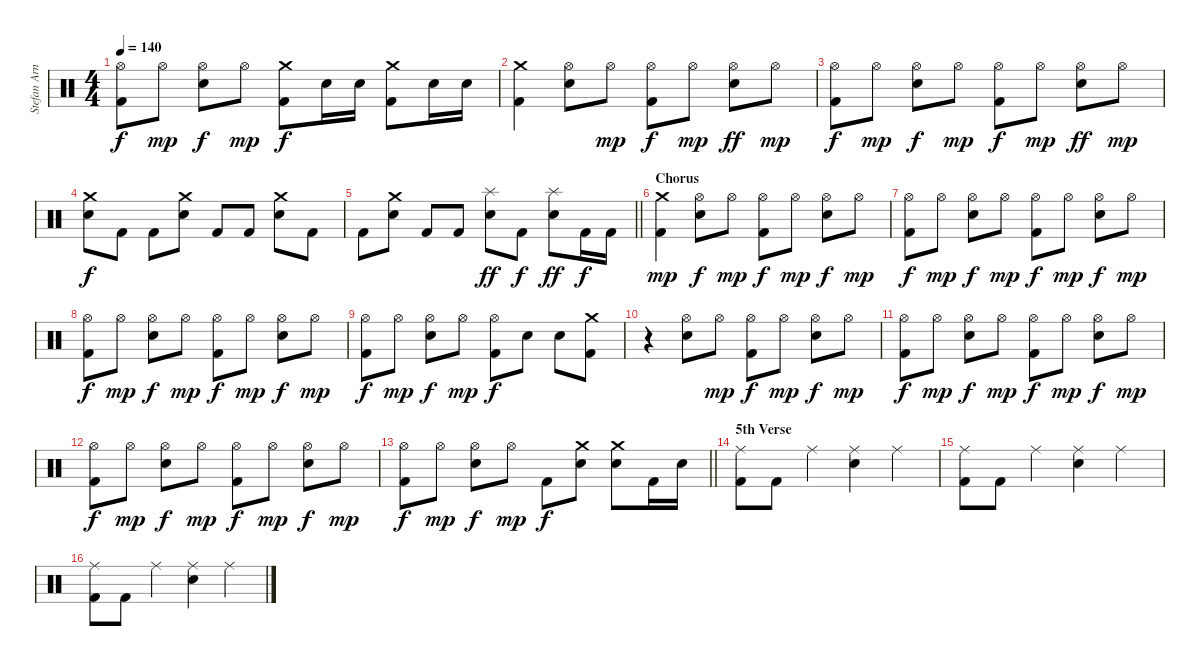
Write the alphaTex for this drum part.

\track ("Stefan Arnold" "Stefan Arn") {instrument percussion}
\staff {score}
\articulation defaults
\ts (4 4)
\tempo 140
\clef neutral
\ks c
("Hi-Hat (open)" "Kick (hit) 2").8{dy f} "Hi-Hat (open)".8{dy mp} ("Hi-Hat (open)" "Electric Snare (hit)").8{dy f} "Hi-Hat (open)".8{dy mp} ("Crash medium (hit)" "Kick (hit) 2").8{dy f} "Electric Snare (hit)".16 "Electric Snare (hit)".16 ("Crash medium (hit)" "Kick (hit) 2").8 "Electric Snare (hit)".16 "Electric Snare (hit)".16 |
("Crash medium (hit)" "Kick (hit) 2").4 ("Hi-Hat (open)" "Electric Snare (hit)").8 "Hi-Hat (open)".8{dy mp} ("Hi-Hat (open)" "Kick (hit) 2").8{dy f} "Hi-Hat (open)".8{dy mp} ("Hi-Hat (open)" "Electric Snare (hit)").8{dy ff} "Hi-Hat (open)".8{dy mp} |
("Hi-Hat (open)" "Kick (hit) 2").8{dy f} "Hi-Hat (open)".8{dy mp} ("Hi-Hat (open)" "Electric Snare (hit)").8{dy f} "Hi-Hat (open)".8{dy mp} ("Hi-Hat (open)" "Kick (hit) 2").8{dy f} "Hi-Hat (open)".8{dy mp} ("Hi-Hat (open)" "Electric Snare (hit)").8{dy ff} "Hi-Hat (open)".8{dy mp} |
("Crash medium (hit)" "Electric Snare (hit)").8{dy f} "Kick (hit) 2".8 "Kick (hit) 2".8 ("Crash medium (hit)" "Electric Snare (hit)").8 "Kick (hit) 2".8 "Kick (hit) 2".8 ("Crash medium (hit)" "Electric Snare (hit)").8 "Kick (hit) 2".8 |
\barLineRight lightlight "Kick (hit) 2".8
("Crash medium (hit)" "Electric Snare (hit)").8 "Kick (hit) 2".8 "Kick (hit) 2".8 ("Splash (hit)" "Electric Snare (hit)").8{dy ff} "Kick (hit) 2".8{dy f} ("Splash (hit)" "Electric Snare (hit)").8{dy ff} "Kick (hit) 2".16{dy f} "Kick (hit) 2".16 |
\section ("" "Chorus")
("Crash medium (hit)" "Kick (hit) 2").4{dy mp} ("Hi-Hat (open)" "Electric Snare (hit)").8{dy f} "Hi-Hat (open)".8{dy mp} ("Hi-Hat (open)" "Kick (hit) 2").8{dy f} "Hi-Hat (open)".8{dy mp} ("Hi-Hat (open)" "Electric Snare (hit)").8{dy f} "Hi-Hat (open)".8{dy mp} |
("Hi-Hat (open)" "Kick (hit) 2").8{dy f} "Hi-Hat (open)".8{dy mp} ("Hi-Hat (open)" "Electric Snare (hit)").8{dy f} "Hi-Hat (open)".8{dy mp} ("Hi-Hat (open)" "Kick (hit) 2").8{dy f} "Hi-Hat (open)".8{dy mp} ("Hi-Hat (open)" "Electric Snare (hit)").8{dy f} "Hi-Hat (open)".8{dy mp} |
("Hi-Hat (open)" "Kick (hit) 2").8{dy f} "Hi-Hat (open)".8{dy mp} ("Hi-Hat (open)" "Electric Snare (hit)").8{dy f} "Hi-Hat (open)".8{dy mp} ("Hi-Hat (open)" "Kick (hit) 2").8{dy f} "Hi-Hat (open)".8{dy mp} ("Hi-Hat (open)" "Electric Snare (hit)").8{dy f} "Hi-Hat (open)".8{dy mp} |
("Hi-Hat (open)" "Kick (hit) 2").8{dy f} "Hi-Hat (open)".8{dy mp} ("Hi-Hat (open)" "Electric Snare (hit)").8{dy f} "Hi-Hat (open)".8{dy mp} ("Hi-Hat (open)" "Kick (hit) 2").8{dy f} "Electric Snare (hit)".8 "Electric Snare (hit)".8 ("Crash medium (hit)" "Kick (hit) 2").8 |
r.4 ("Hi-Hat (open)" "Electric Snare (hit)").8 "Hi-Hat (open)".8{dy mp} ("Hi-Hat (open)" "Kick (hit) 2").8{dy f} "Hi-Hat (open)".8{dy mp} ("Hi-Hat (open)" "Electric Snare (hit)").8{dy f} "Hi-Hat (open)".8{dy mp} |
("Hi-Hat (open)" "Kick (hit) 2").8{dy f} "Hi-Hat (open)".8{dy mp} ("Hi-Hat (open)" "Electric Snare (hit)").8{dy f} "Hi-Hat (open)".8{dy mp} ("Hi-Hat (open)" "Kick (hit) 2").8{dy f} "Hi-Hat (open)".8{dy mp} ("Hi-Hat (open)" "Electric Snare (hit)").8{dy f} "Hi-Hat (open)".8{dy mp} |
("Hi-Hat (open)" "Kick (hit) 2").8{dy f} "Hi-Hat (open)".8{dy mp} ("Hi-Hat (open)" "Electric Snare (hit)").8{dy f} "Hi-Hat (open)".8{dy mp} ("Hi-Hat (open)" "Kick (hit) 2").8{dy f} "Hi-Hat (open)".8{dy mp} ("Hi-Hat (open)" "Electric Snare (hit)").8{dy f} "Hi-Hat (open)".8{dy mp} |
\barLineRight lightlight
("Hi-Hat (open)" "Kick (hit) 2").8{dy f} "Hi-Hat (open)".8{dy mp} ("Hi-Hat (open)" "Electric Snare (hit)").8{dy f} "Hi-Hat (open)".8{dy mp} "Kick (hit) 2".8{dy f} ("Crash medium (hit)" "Electric Snare (hit)").8 ("Crash medium (hit)" "Electric Snare (hit)").8 "Kick (hit) 2".16 "Electric Snare (hit)".16 |
\section ("" "5th Verse")
("Ride (middle)" "Kick (hit) 2").8 "Kick (hit) 2".8 "Ride (middle)".4 ("Ride (middle)" "Electric Snare (hit)").4 "Ride (middle)".4 |
("Ride (middle)" "Kick (hit) 2").8 "Kick (hit) 2".8 "Ride (middle)".4 ("Ride (middle)" "Electric Snare (hit)").4 "Ride (middle)".4 |
("Ride (middle)" "Kick (hit) 2").8 "Kick (hit) 2".8 "Ride (middle)".4 ("Ride (middle)" "Electric Snare (hit)").4 "Ride (middle)".4
